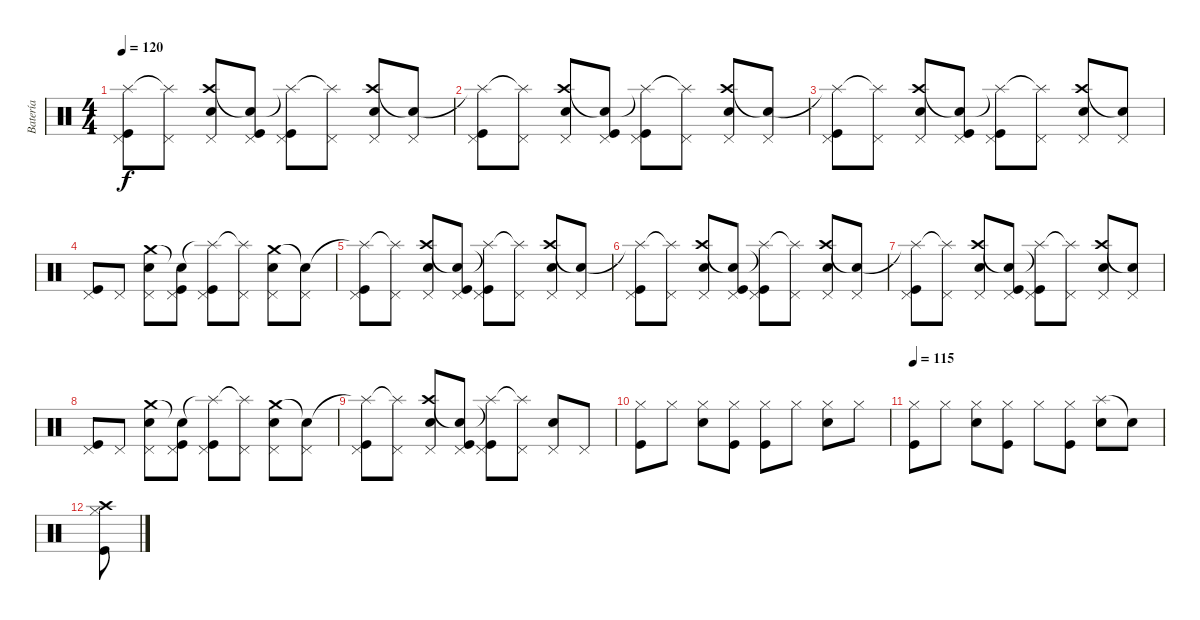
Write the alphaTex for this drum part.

\track ("Batería" "Batería") {instrument percussion}
\staff {score}
\articulation defaults
\ts (4 4)
\tempo 120
\clef neutral
\ks c
("Pedal Hi-Hat (hit)" "Splash (hit)"{t} "Kick (hit)").8{dy f} ("Pedal Hi-Hat (hit)" "Splash (hit)"{t}).8 ("Pedal Hi-Hat (hit)" "Crash high (hit)" "Electric Snare (hit)").8 ("Pedal Hi-Hat (hit)" "Snare (hit)"{t} "Kick (hit)").8 ("Pedal Hi-Hat (hit)" "Splash (hit)"{t} "Kick (hit)").8 ("Pedal Hi-Hat (hit)" "Splash (hit)"{t}).8 ("Pedal Hi-Hat (hit)" "Crash high (hit)" "Electric Snare (hit)").8 ("Pedal Hi-Hat (hit)" "Snare (hit)"{t}).8 |
("Pedal Hi-Hat (hit)" "Splash (hit)"{t} "Kick (hit)").8 ("Pedal Hi-Hat (hit)" "Splash (hit)"{t}).8 ("Pedal Hi-Hat (hit)" "Crash high (hit)" "Electric Snare (hit)").8 ("Pedal Hi-Hat (hit)" "Snare (hit)"{t} "Kick (hit)").8 ("Pedal Hi-Hat (hit)" "Splash (hit)"{t} "Kick (hit)").8 ("Pedal Hi-Hat (hit)" "Splash (hit)"{t}).8 ("Pedal Hi-Hat (hit)" "Crash high (hit)" "Electric Snare (hit)").8 ("Pedal Hi-Hat (hit)" "Snare (hit)"{t}).8 |
("Pedal Hi-Hat (hit)" "Splash (hit)"{t} "Kick (hit)").8 ("Pedal Hi-Hat (hit)" "Splash (hit)"{t}).8 ("Pedal Hi-Hat (hit)" "Crash high (hit)" "Electric Snare (hit)").8 ("Pedal Hi-Hat (hit)" "Snare (hit)"{t} "Kick (hit)").8 ("Pedal Hi-Hat (hit)" "Splash (hit)"{t} "Kick (hit)").8 ("Pedal Hi-Hat (hit)" "Splash (hit)"{t}).8 ("Pedal Hi-Hat (hit)" "Crash high (hit)" "Electric Snare (hit)").8 ("Pedal Hi-Hat (hit)" "Snare (hit)"{t}).8 |
("Pedal Hi-Hat (hit)" "Kick (hit)").8 "Pedal Hi-Hat (hit)".8 ("Pedal Hi-Hat (hit)" "Crash medium (hit)" "Electric Snare (hit)").8 ("Pedal Hi-Hat (hit)" "Snare (hit)"{t} "Kick (hit)").8 ("Pedal Hi-Hat (hit)" "Splash (hit)"{t} "Kick (hit)").8 ("Pedal Hi-Hat (hit)" "Splash (hit)"{t}).8 ("Pedal Hi-Hat (hit)" "Crash medium (hit)" "Electric Snare (hit)").8 ("Pedal Hi-Hat (hit)" "Snare (hit)"{t}).8 |
("Pedal Hi-Hat (hit)" "Splash (hit)"{t} "Kick (hit)").8 ("Pedal Hi-Hat (hit)" "Splash (hit)"{t}).8 ("Pedal Hi-Hat (hit)" "Crash high (hit)" "Electric Snare (hit)").8 ("Pedal Hi-Hat (hit)" "Snare (hit)"{t} "Kick (hit)").8 ("Pedal Hi-Hat (hit)" "Splash (hit)"{t} "Kick (hit)").8 ("Pedal Hi-Hat (hit)" "Splash (hit)"{t}).8 ("Pedal Hi-Hat (hit)" "Crash high (hit)" "Electric Snare (hit)").8 ("Pedal Hi-Hat (hit)" "Snare (hit)"{t}).8 |
("Pedal Hi-Hat (hit)" "Splash (hit)"{t} "Kick (hit)").8 ("Pedal Hi-Hat (hit)" "Splash (hit)"{t}).8 ("Pedal Hi-Hat (hit)" "Crash high (hit)" "Electric Snare (hit)").8 ("Pedal Hi-Hat (hit)" "Snare (hit)"{t} "Kick (hit)").8 ("Pedal Hi-Hat (hit)" "Splash (hit)"{t} "Kick (hit)").8 ("Pedal Hi-Hat (hit)" "Splash (hit)"{t}).8 ("Pedal Hi-Hat (hit)" "Crash high (hit)" "Electric Snare (hit)").8 ("Pedal Hi-Hat (hit)" "Snare (hit)"{t}).8 |
("Pedal Hi-Hat (hit)" "Splash (hit)"{t} "Kick (hit)").8 ("Pedal Hi-Hat (hit)" "Splash (hit)"{t}).8 ("Pedal Hi-Hat (hit)" "Crash high (hit)" "Electric Snare (hit)").8 ("Pedal Hi-Hat (hit)" "Snare (hit)"{t} "Kick (hit)").8 ("Pedal Hi-Hat (hit)" "Splash (hit)"{t} "Kick (hit)").8 ("Pedal Hi-Hat (hit)" "Splash (hit)"{t}).8 ("Pedal Hi-Hat (hit)" "Crash high (hit)" "Electric Snare (hit)").8 ("Pedal Hi-Hat (hit)" "Snare (hit)"{t}).8 |
("Pedal Hi-Hat (hit)" "Kick (hit)").8 "Pedal Hi-Hat (hit)".8 ("Pedal Hi-Hat (hit)" "Crash medium (hit)" "Electric Snare (hit)").8 ("Pedal Hi-Hat (hit)" "Snare (hit)"{t} "Kick (hit)").8 ("Pedal Hi-Hat (hit)" "Splash (hit)"{t} "Kick (hit)").8 ("Pedal Hi-Hat (hit)" "Splash (hit)"{t}).8 ("Pedal Hi-Hat (hit)" "Crash medium (hit)" "Electric Snare (hit)").8 ("Pedal Hi-Hat (hit)" "Snare (hit)"{t}).8 |
("Pedal Hi-Hat (hit)" "Splash (hit)"{t} "Kick (hit)").8 ("Pedal Hi-Hat (hit)" "Splash (hit)"{t}).8 ("Pedal Hi-Hat (hit)" "Crash high (hit)" "Electric Snare (hit)").8 ("Pedal Hi-Hat (hit)" "Snare (hit)"{t} "Kick (hit)").8 ("Pedal Hi-Hat (hit)" "Splash (hit)"{t} "Kick (hit)").8 ("Pedal Hi-Hat (hit)" "Splash (hit)"{t}).8 ("Pedal Hi-Hat (hit)" "Electric Snare (hit)").8 "Pedal Hi-Hat (hit)".8 |
("Hi-Hat (closed)" "Kick (hit)").8 "Hi-Hat (closed)".8 ("Hi-Hat (closed)" "Electric Snare (hit)").8 ("Hi-Hat (closed)" "Kick (hit)").8 ("Hi-Hat (closed)" "Kick (hit)").8 "Hi-Hat (closed)".8 ("Hi-Hat (closed)" "Electric Snare (hit)").8 "Hi-Hat (closed)".8 |
\tempo 115
("Hi-Hat (closed)" "Kick (hit)").8 "Hi-Hat (closed)".8 ("Hi-Hat (closed)" "Electric Snare (hit)").8 ("Hi-Hat (closed)" "Kick (hit)").8 "Hi-Hat (closed)".8 ("Hi-Hat (closed)" "Kick (hit)").8 ("Splash (hit)" "Electric Snare (hit)").8 "Snare (hit)"{t}.8 |
("Hi-Hat (closed)" "Crash high (hit)" "Kick (hit)").8
